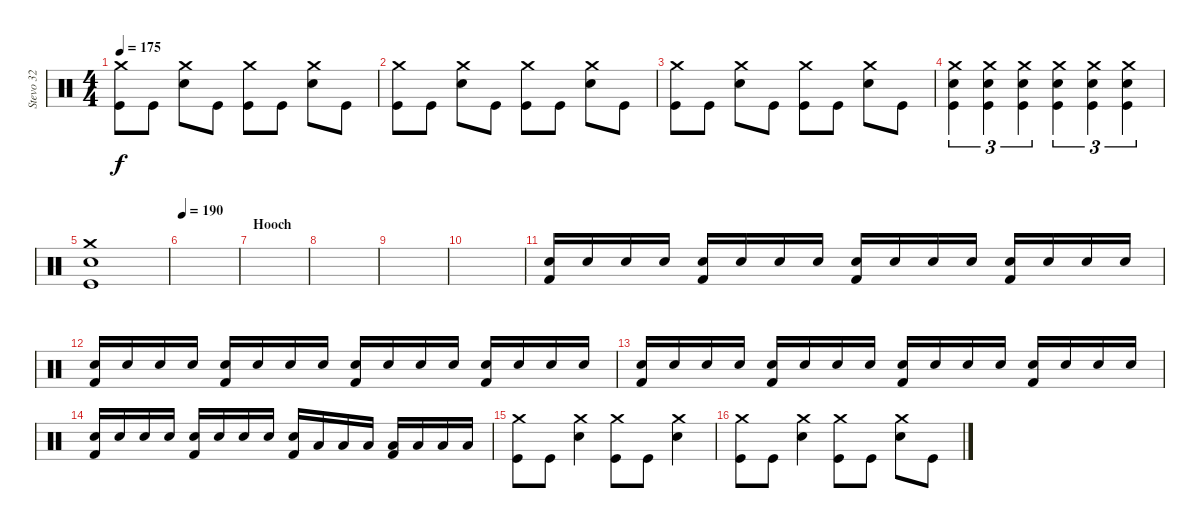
\track ("Stevo 32" "Stevo 32") {instrument percussion}
\staff {score}
\articulation defaults
\ts (4 4)
\tempo 175
\clef neutral
\ks c
("Crash medium (hit)" "Kick (hit)").8{dy f} "Kick (hit)".8 ("Crash medium (hit)" "Electric Snare (hit)").8 "Kick (hit)".8 ("Crash medium (hit)" "Kick (hit)").8 "Kick (hit)".8 ("Crash medium (hit)" "Electric Snare (hit)").8 "Kick (hit)".8 |
("Crash medium (hit)" "Kick (hit)").8 "Kick (hit)".8 ("Crash medium (hit)" "Electric Snare (hit)").8 "Kick (hit)".8 ("Crash medium (hit)" "Kick (hit)").8 "Kick (hit)".8 ("Crash medium (hit)" "Electric Snare (hit)").8 "Kick (hit)".8 |
("Crash medium (hit)" "Kick (hit)").8 "Kick (hit)".8 ("Crash medium (hit)" "Electric Snare (hit)").8 "Kick (hit)".8 ("Crash medium (hit)" "Kick (hit)").8 "Kick (hit)".8 ("Crash medium (hit)" "Electric Snare (hit)").8 "Kick (hit)".8 |
("Crash medium (hit)" "Electric Snare (hit)" "Kick (hit)").4{tu (3 2)} ("Crash medium (hit)" "Electric Snare (hit)" "Kick (hit)").4{tu (3 2)} ("Crash medium (hit)" "Electric Snare (hit)" "Kick (hit)").4{tu (3 2)} ("Crash medium (hit)" "Electric Snare (hit)" "Kick (hit)").4{tu (3 2)} ("Crash medium (hit)" "Electric Snare (hit)" "Kick (hit)").4{tu (3 2)} ("Crash medium (hit)" "Electric Snare (hit)" "Kick (hit)").4{tu (3 2)} |
("Crash medium (hit)" "Electric Snare (hit)" "Kick (hit)").1 |
\tempo 190
|
\section ("" "Hooch")
|
|
|
|
("Electric Snare (hit)" "Kick (hit) 2").16 "Electric Snare (hit)".16 "Electric Snare (hit)".16 "Electric Snare (hit)".16 ("Electric Snare (hit)" "Kick (hit) 2").16 "Electric Snare (hit)".16 "Electric Snare (hit)".16 "Electric Snare (hit)".16 ("Electric Snare (hit)" "Kick (hit) 2").16 "Electric Snare (hit)".16 "Electric Snare (hit)".16 "Electric Snare (hit)".16 ("Electric Snare (hit)" "Kick (hit) 2").16 "Electric Snare (hit)".16 "Electric Snare (hit)".16 "Electric Snare (hit)".16 |
("Electric Snare (hit)" "Kick (hit) 2").16 "Electric Snare (hit)".16 "Electric Snare (hit)".16 "Electric Snare (hit)".16 ("Electric Snare (hit)" "Kick (hit) 2").16 "Electric Snare (hit)".16 "Electric Snare (hit)".16 "Electric Snare (hit)".16 ("Electric Snare (hit)" "Kick (hit) 2").16 "Electric Snare (hit)".16 "Electric Snare (hit)".16 "Electric Snare (hit)".16 ("Electric Snare (hit)" "Kick (hit) 2").16 "Electric Snare (hit)".16 "Electric Snare (hit)".16 "Electric Snare (hit)".16 |
("Electric Snare (hit)" "Kick (hit) 2").16 "Electric Snare (hit)".16 "Electric Snare (hit)".16 "Electric Snare (hit)".16 ("Electric Snare (hit)" "Kick (hit) 2").16 "Electric Snare (hit)".16 "Electric Snare (hit)".16 "Electric Snare (hit)".16 ("Electric Snare (hit)" "Kick (hit) 2").16 "Electric Snare (hit)".16 "Electric Snare (hit)".16 "Electric Snare (hit)".16 ("Electric Snare (hit)" "Kick (hit) 2").16 "Electric Snare (hit)".16 "Electric Snare (hit)".16 "Electric Snare (hit)".16 |
("Electric Snare (hit)" "Kick (hit) 2").16 "Electric Snare (hit)".16 "Electric Snare (hit)".16 "Electric Snare (hit)".16 ("Electric Snare (hit)" "Kick (hit) 2").16 "Electric Snare (hit)".16 "Electric Snare (hit)".16 "Electric Snare (hit)".16 ("Electric Snare (hit)" "Kick (hit) 2").16 "Low Tom (hit)".16 "Low Tom (hit)".16 "Low Tom (hit)".16 ("Low Tom (hit)" "Kick (hit) 2").16 "Low Tom (hit)".16 "Low Tom (hit)".16 "Low Tom (hit)".16 |
("Crash medium (hit)" "Kick (hit)").8 "Kick (hit)".8 ("Crash medium (hit)" "Electric Snare (hit)").4 ("Crash medium (hit)" "Kick (hit)").8 "Kick (hit)".8 ("Crash medium (hit)" "Electric Snare (hit)").4 |
("Crash medium (hit)" "Kick (hit)").8 "Kick (hit)".8 ("Crash medium (hit)" "Electric Snare (hit)").4 ("Crash medium (hit)" "Kick (hit)").8 "Kick (hit)".8 ("Crash medium (hit)" "Electric Snare (hit)").8 "Kick (hit)".8
